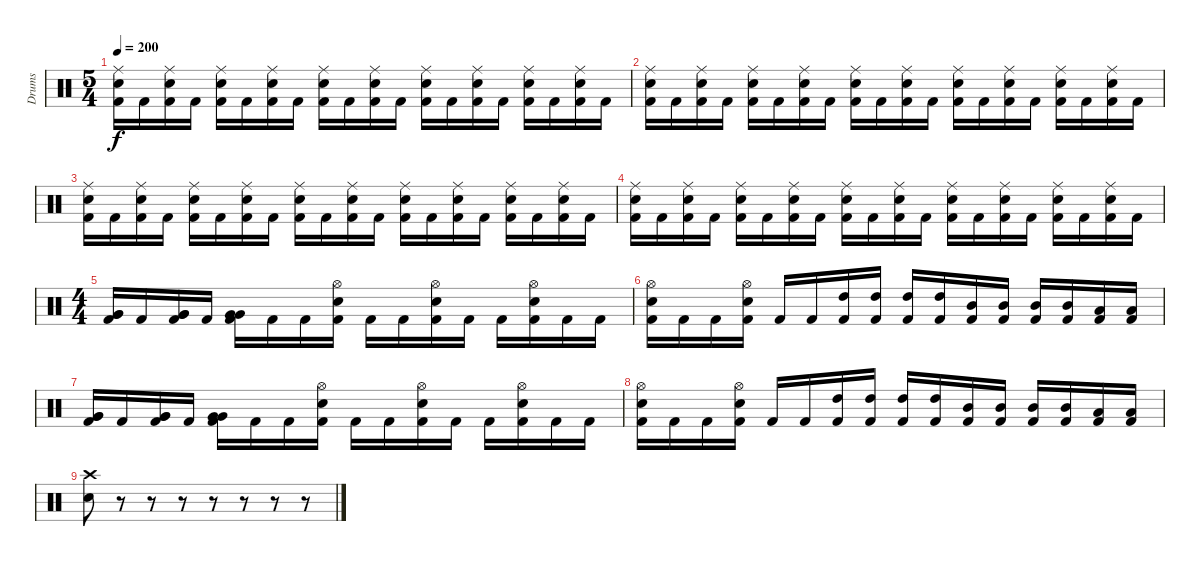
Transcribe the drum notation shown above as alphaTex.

\track ("Drums" "Drums") {instrument percussion}
\staff {score}
\articulation defaults
\ts (5 4)
\tempo 200
\clef neutral
\ks c
("Ride (middle)" "Electric Snare (hit)" "Kick (hit) 2").16{dy f} "Kick (hit) 2".16 ("Ride (middle)" "Electric Snare (hit)" "Kick (hit) 2").16 "Kick (hit) 2".16 ("Ride (middle)" "Electric Snare (hit)" "Kick (hit) 2").16 "Kick (hit) 2".16 ("Ride (middle)" "Electric Snare (hit)" "Kick (hit) 2").16 "Kick (hit) 2".16 ("Ride (middle)" "Electric Snare (hit)" "Kick (hit) 2").16 "Kick (hit) 2".16 ("Ride (middle)" "Electric Snare (hit)" "Kick (hit) 2").16 "Kick (hit) 2".16 ("Ride (middle)" "Electric Snare (hit)" "Kick (hit) 2").16 "Kick (hit) 2".16 ("Ride (middle)" "Electric Snare (hit)" "Kick (hit) 2").16 "Kick (hit) 2".16 ("Ride (middle)" "Electric Snare (hit)" "Kick (hit) 2").16 "Kick (hit) 2".16 ("Ride (middle)" "Electric Snare (hit)" "Kick (hit) 2").16 "Kick (hit) 2".16 |
("Ride (middle)" "Electric Snare (hit)" "Kick (hit) 2").16 "Kick (hit) 2".16 ("Ride (middle)" "Electric Snare (hit)" "Kick (hit) 2").16 "Kick (hit) 2".16 ("Ride (middle)" "Electric Snare (hit)" "Kick (hit) 2").16 "Kick (hit) 2".16 ("Ride (middle)" "Electric Snare (hit)" "Kick (hit) 2").16 "Kick (hit) 2".16 ("Ride (middle)" "Electric Snare (hit)" "Kick (hit) 2").16 "Kick (hit) 2".16 ("Ride (middle)" "Electric Snare (hit)" "Kick (hit) 2").16 "Kick (hit) 2".16 ("Ride (middle)" "Electric Snare (hit)" "Kick (hit) 2").16 "Kick (hit) 2".16 ("Ride (middle)" "Electric Snare (hit)" "Kick (hit) 2").16 "Kick (hit) 2".16 ("Ride (middle)" "Electric Snare (hit)" "Kick (hit) 2").16 "Kick (hit) 2".16 ("Ride (middle)" "Electric Snare (hit)" "Kick (hit) 2").16 "Kick (hit) 2".16 |
("Ride (middle)" "Electric Snare (hit)" "Kick (hit) 2").16 "Kick (hit) 2".16 ("Ride (middle)" "Electric Snare (hit)" "Kick (hit) 2").16 "Kick (hit) 2".16 ("Ride (middle)" "Electric Snare (hit)" "Kick (hit) 2").16 "Kick (hit) 2".16 ("Ride (middle)" "Electric Snare (hit)" "Kick (hit) 2").16 "Kick (hit) 2".16 ("Ride (middle)" "Electric Snare (hit)" "Kick (hit) 2").16 "Kick (hit) 2".16 ("Ride (middle)" "Electric Snare (hit)" "Kick (hit) 2").16 "Kick (hit) 2".16 ("Ride (middle)" "Electric Snare (hit)" "Kick (hit) 2").16 "Kick (hit) 2".16 ("Ride (middle)" "Electric Snare (hit)" "Kick (hit) 2").16 "Kick (hit) 2".16 ("Ride (middle)" "Electric Snare (hit)" "Kick (hit) 2").16 "Kick (hit) 2".16 ("Ride (middle)" "Electric Snare (hit)" "Kick (hit) 2").16 "Kick (hit) 2".16 |
("Ride (middle)" "Electric Snare (hit)" "Kick (hit) 2").16 "Kick (hit) 2".16 ("Ride (middle)" "Electric Snare (hit)" "Kick (hit) 2").16 "Kick (hit) 2".16 ("Ride (middle)" "Electric Snare (hit)" "Kick (hit) 2").16 "Kick (hit) 2".16 ("Ride (middle)" "Electric Snare (hit)" "Kick (hit) 2").16 "Kick (hit) 2".16 ("Ride (middle)" "Electric Snare (hit)" "Kick (hit) 2").16 "Kick (hit) 2".16 ("Ride (middle)" "Electric Snare (hit)" "Kick (hit) 2").16 "Kick (hit) 2".16 ("Ride (middle)" "Electric Snare (hit)" "Kick (hit) 2").16 "Kick (hit) 2".16 ("Ride (middle)" "Electric Snare (hit)" "Kick (hit) 2").16 "Kick (hit) 2".16 ("Ride (middle)" "Electric Snare (hit)" "Kick (hit) 2").16 "Kick (hit) 2".16 ("Ride (middle)" "Electric Snare (hit)" "Kick (hit) 2").16 "Kick (hit) 2".16 |
\ts (4 4)
("Very Low Tom (hit)" "Very Low Tom (hit)" "Kick (hit) 2").16 "Kick (hit) 2".16 ("Very Low Tom (hit)" "Very Low Tom (hit)" "Kick (hit) 2").16 "Kick (hit) 2".16 ("Very Low Tom (hit)" "Very Low Tom (hit)" "Kick (hit) 2").16 "Kick (hit) 2".16 "Kick (hit) 2".16 ("Hi-Hat (open)" "Electric Snare (hit)" "Kick (hit) 2").16 "Kick (hit) 2".16 "Kick (hit) 2".16 ("Hi-Hat (open)" "Electric Snare (hit)" "Kick (hit) 2").16 "Kick (hit) 2".16 "Kick (hit) 2".16 ("Hi-Hat (open)" "Electric Snare (hit)" "Kick (hit) 2").16 "Kick (hit) 2".16 "Kick (hit) 2".16 |
("Hi-Hat (open)" "Electric Snare (hit)" "Kick (hit) 2").16 "Kick (hit) 2".16 "Kick (hit) 2".16 ("Hi-Hat (open)" "Electric Snare (hit)" "Kick (hit) 2").16 "Kick (hit) 2".16 "Kick (hit) 2".16 ("High Tom (hit)" "Kick (hit) 2").16 ("High Tom (hit)" "Kick (hit) 2").16 ("High Tom (hit)" "Kick (hit) 2").16 ("High Tom (hit)" "Kick (hit) 2").16 ("Mid Tom (hit)" "Kick (hit) 2").16 ("Mid Tom (hit)" "Kick (hit) 2").16 ("Mid Tom (hit)" "Kick (hit) 2").16 ("Mid Tom (hit)" "Kick (hit) 2").16 ("Low Tom (hit)" "Kick (hit) 2").16 ("Low Tom (hit)" "Kick (hit) 2").16 |
("Very Low Tom (hit)" "Very Low Tom (hit)" "Kick (hit) 2").16 "Kick (hit) 2".16 ("Very Low Tom (hit)" "Very Low Tom (hit)" "Kick (hit) 2").16 "Kick (hit) 2".16 ("Very Low Tom (hit)" "Very Low Tom (hit)" "Kick (hit) 2").16 "Kick (hit) 2".16 "Kick (hit) 2".16 ("Hi-Hat (open)" "Electric Snare (hit)" "Kick (hit) 2").16 "Kick (hit) 2".16 "Kick (hit) 2".16 ("Hi-Hat (open)" "Electric Snare (hit)" "Kick (hit) 2").16 "Kick (hit) 2".16 "Kick (hit) 2".16 ("Hi-Hat (open)" "Electric Snare (hit)" "Kick (hit) 2").16 "Kick (hit) 2".16 "Kick (hit) 2".16 |
("Hi-Hat (open)" "Electric Snare (hit)" "Kick (hit) 2").16 "Kick (hit) 2".16 "Kick (hit) 2".16 ("Hi-Hat (open)" "Electric Snare (hit)" "Kick (hit) 2").16 "Kick (hit) 2".16 "Kick (hit) 2".16 ("High Tom (hit)" "Kick (hit) 2").16 ("High Tom (hit)" "Kick (hit) 2").16 ("High Tom (hit)" "Kick (hit) 2").16 ("High Tom (hit)" "Kick (hit) 2").16 ("Mid Tom (hit)" "Kick (hit) 2").16 ("Mid Tom (hit)" "Kick (hit) 2").16 ("Mid Tom (hit)" "Kick (hit) 2").16 ("Mid Tom (hit)" "Kick (hit) 2").16 ("Low Tom (hit)" "Kick (hit) 2").16 ("Low Tom (hit)" "Kick (hit) 2").16 |
("Crash high (hit)" "Electric Snare (hit)").8 r.8 r.8 r.8 r.8 r.8 r.8 r.8
